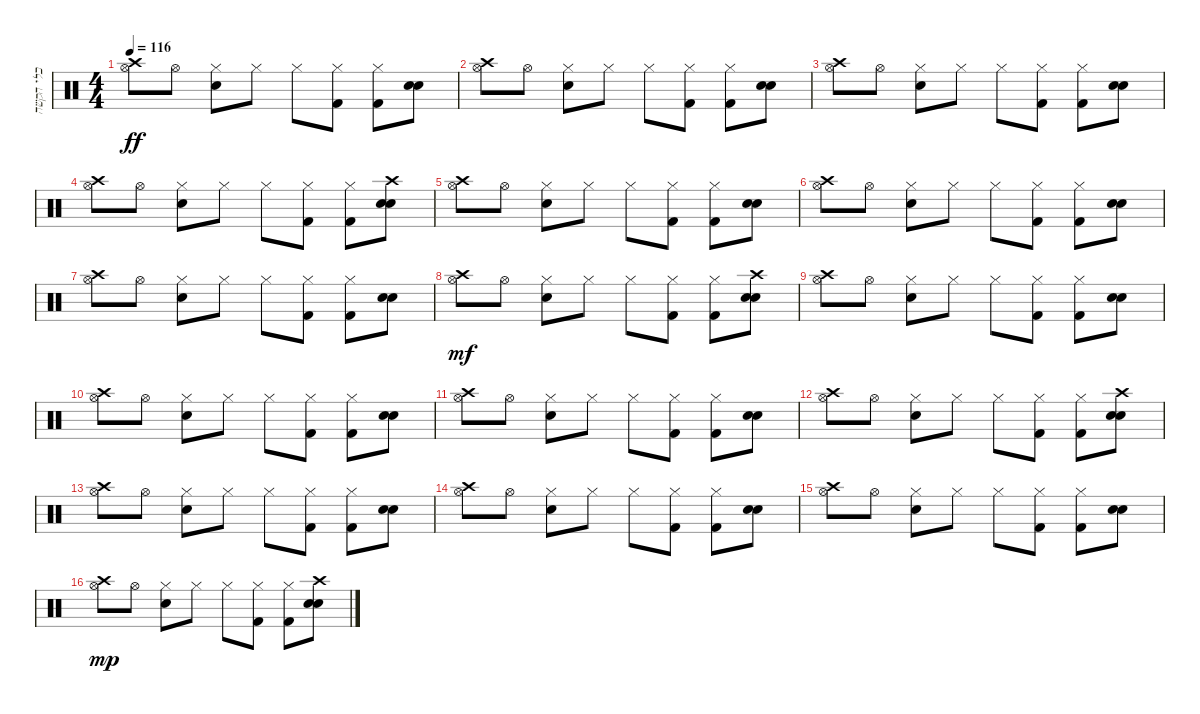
\track ("כלי הקשה" "כלי הקשה") {instrument percussion}
\staff {score}
\articulation defaults
\ts (4 4)
\tempo 116
\clef neutral
\ks c
("Hi-Hat (open)" "Crash high (hit)").8{dy ff} "Hi-Hat (open)".8 ("Hi-Hat (closed)" "Snare (hit) 2").8 "Hi-Hat (closed)".8 "Hi-Hat (closed)".8 ("Hi-Hat (closed)" "Kick (hit) 2").8 ("Hi-Hat (closed)" "Kick (hit) 2").8 ("Electric Snare (hit)" "Snare (hit) 2").8 |
("Hi-Hat (open)" "Crash high (hit)").8 "Hi-Hat (open)".8 ("Hi-Hat (closed)" "Snare (hit) 2").8 "Hi-Hat (closed)".8 "Hi-Hat (closed)".8 ("Hi-Hat (closed)" "Kick (hit) 2").8 ("Hi-Hat (closed)" "Kick (hit) 2").8 ("Electric Snare (hit)" "Snare (hit) 2").8 |
("Hi-Hat (open)" "Crash high (hit)").8 "Hi-Hat (open)".8 ("Hi-Hat (closed)" "Snare (hit) 2").8 "Hi-Hat (closed)".8 "Hi-Hat (closed)".8 ("Hi-Hat (closed)" "Kick (hit) 2").8 ("Hi-Hat (closed)" "Kick (hit) 2").8 ("Electric Snare (hit)" "Snare (hit) 2").8 |
("Hi-Hat (open)" "Crash high (hit)").8 "Hi-Hat (open)".8 ("Hi-Hat (closed)" "Snare (hit) 2").8 "Hi-Hat (closed)".8 "Hi-Hat (closed)".8 ("Hi-Hat (closed)" "Kick (hit) 2").8 ("Hi-Hat (closed)" "Kick (hit) 2").8 ("Crash high (hit)" "Electric Snare (hit)" "Snare (hit) 2").8 |
("Hi-Hat (open)" "Crash high (hit)").8 "Hi-Hat (open)".8 ("Hi-Hat (closed)" "Snare (hit) 2").8 "Hi-Hat (closed)".8 "Hi-Hat (closed)".8 ("Hi-Hat (closed)" "Kick (hit) 2").8 ("Hi-Hat (closed)" "Kick (hit) 2").8 ("Electric Snare (hit)" "Snare (hit) 2").8 |
("Hi-Hat (open)" "Crash high (hit)").8 "Hi-Hat (open)".8 ("Hi-Hat (closed)" "Snare (hit) 2").8 "Hi-Hat (closed)".8 "Hi-Hat (closed)".8 ("Hi-Hat (closed)" "Kick (hit) 2").8 ("Hi-Hat (closed)" "Kick (hit) 2").8 ("Electric Snare (hit)" "Snare (hit) 2").8 |
("Hi-Hat (open)" "Crash high (hit)").8 "Hi-Hat (open)".8 ("Hi-Hat (closed)" "Snare (hit) 2").8 "Hi-Hat (closed)".8 "Hi-Hat (closed)".8 ("Hi-Hat (closed)" "Kick (hit) 2").8 ("Hi-Hat (closed)" "Kick (hit) 2").8 ("Electric Snare (hit)" "Snare (hit) 2").8 |
("Hi-Hat (open)" "Crash high (hit)").8{dy mf} "Hi-Hat (open)".8 ("Hi-Hat (closed)" "Snare (hit) 2").8 "Hi-Hat (closed)".8 "Hi-Hat (closed)".8 ("Hi-Hat (closed)" "Kick (hit) 2").8 ("Hi-Hat (closed)" "Kick (hit) 2").8 ("Crash high (hit)" "Electric Snare (hit)" "Snare (hit) 2").8 |
("Hi-Hat (open)" "Crash high (hit)").8 "Hi-Hat (open)".8 ("Hi-Hat (closed)" "Snare (hit) 2").8 "Hi-Hat (closed)".8 "Hi-Hat (closed)".8 ("Hi-Hat (closed)" "Kick (hit) 2").8 ("Hi-Hat (closed)" "Kick (hit) 2").8 ("Electric Snare (hit)" "Snare (hit) 2").8 |
("Hi-Hat (open)" "Crash high (hit)").8 "Hi-Hat (open)".8 ("Hi-Hat (closed)" "Snare (hit) 2").8 "Hi-Hat (closed)".8 "Hi-Hat (closed)".8 ("Hi-Hat (closed)" "Kick (hit) 2").8 ("Hi-Hat (closed)" "Kick (hit) 2").8 ("Electric Snare (hit)" "Snare (hit) 2").8 |
("Hi-Hat (open)" "Crash high (hit)").8 "Hi-Hat (open)".8 ("Hi-Hat (closed)" "Snare (hit) 2").8 "Hi-Hat (closed)".8 "Hi-Hat (closed)".8 ("Hi-Hat (closed)" "Kick (hit) 2").8 ("Hi-Hat (closed)" "Kick (hit) 2").8 ("Electric Snare (hit)" "Snare (hit) 2").8 |
("Hi-Hat (open)" "Crash high (hit)").8 "Hi-Hat (open)".8 ("Hi-Hat (closed)" "Snare (hit) 2").8 "Hi-Hat (closed)".8 "Hi-Hat (closed)".8 ("Hi-Hat (closed)" "Kick (hit) 2").8 ("Hi-Hat (closed)" "Kick (hit) 2").8 ("Crash high (hit)" "Electric Snare (hit)" "Snare (hit) 2").8 |
("Hi-Hat (open)" "Crash high (hit)").8 "Hi-Hat (open)".8 ("Hi-Hat (closed)" "Snare (hit) 2").8 "Hi-Hat (closed)".8 "Hi-Hat (closed)".8 ("Hi-Hat (closed)" "Kick (hit) 2").8 ("Hi-Hat (closed)" "Kick (hit) 2").8 ("Electric Snare (hit)" "Snare (hit) 2").8 |
("Hi-Hat (open)" "Crash high (hit)").8 "Hi-Hat (open)".8 ("Hi-Hat (closed)" "Snare (hit) 2").8 "Hi-Hat (closed)".8 "Hi-Hat (closed)".8 ("Hi-Hat (closed)" "Kick (hit) 2").8 ("Hi-Hat (closed)" "Kick (hit) 2").8 ("Electric Snare (hit)" "Snare (hit) 2").8 |
("Hi-Hat (open)" "Crash high (hit)").8 "Hi-Hat (open)".8 ("Hi-Hat (closed)" "Snare (hit) 2").8 "Hi-Hat (closed)".8 "Hi-Hat (closed)".8 ("Hi-Hat (closed)" "Kick (hit) 2").8 ("Hi-Hat (closed)" "Kick (hit) 2").8 ("Electric Snare (hit)" "Snare (hit) 2").8 |
("Hi-Hat (open)" "Crash high (hit)").8{dy mp} "Hi-Hat (open)".8 ("Hi-Hat (closed)" "Snare (hit) 2").8 "Hi-Hat (closed)".8 "Hi-Hat (closed)".8 ("Hi-Hat (closed)" "Kick (hit) 2").8 ("Hi-Hat (closed)" "Kick (hit) 2").8 ("Crash high (hit)" "Electric Snare (hit)" "Snare (hit) 2").8
